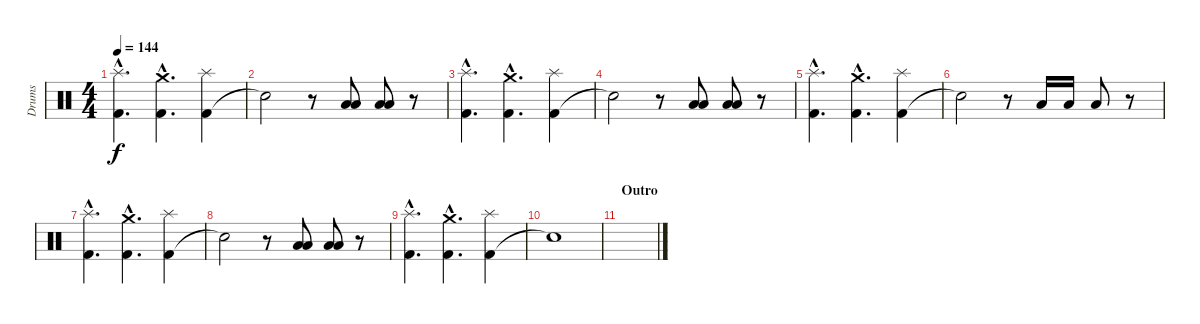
\track ("Drums" "Drums") {instrument percussion}
\staff {score}
\articulation defaults
\ts (4 4)
\tempo 144
\clef neutral
\ks c
("Kick (hit) 2"{hac} "Splash (hit)"{hac}).4{d dy f} ("Kick (hit) 2"{hac} "Crash medium (hit)"{hac}).4{d} ("Kick (hit) 2" "Splash (hit)").4 |
"Snare (hit)"{t}.2 r.8 ("Low Floor Tom (hit)" "Low Tom (hit)").8 ("Low Floor Tom (hit)" "Low Tom (hit)").8 r.8 |
("Kick (hit) 2"{hac} "Splash (hit)"{hac}).4{d} ("Kick (hit) 2"{hac} "Crash medium (hit)"{hac}).4{d} ("Kick (hit) 2" "Splash (hit)").4 |
"Snare (hit)"{t}.2 r.8 ("Low Tom (hit)" "Low Tom (hit)").8 ("Low Tom (hit)" "Low Tom (hit)").8 r.8 |
("Kick (hit) 2"{hac} "Splash (hit)"{hac}).4{d} ("Kick (hit) 2"{hac} "Crash medium (hit)"{hac}).4{d} ("Kick (hit) 2" "Splash (hit)").4 |
"Snare (hit)"{t}.2 r.8 "Low Tom (hit)".16 "Low Tom (hit)".16 "Low Tom (hit)".8 r.8 |
("Kick (hit) 2"{hac} "Splash (hit)"{hac}).4{d} ("Kick (hit) 2"{hac} "Crash medium (hit)"{hac}).4{d} ("Kick (hit) 2" "Splash (hit)").4 |
"Snare (hit)"{t}.2 r.8 ("Low Tom (hit)" "Low Tom (hit)").8 ("Low Tom (hit)" "Low Tom (hit)").8 r.8 |
("Kick (hit) 2"{hac} "Splash (hit)"{hac}).4{d} ("Kick (hit) 2"{hac} "Crash medium (hit)"{hac}).4{d} ("Kick (hit) 2" "Splash (hit)").4 |
"Snare (hit)"{t}.1 |
\section ("" "Outro")
